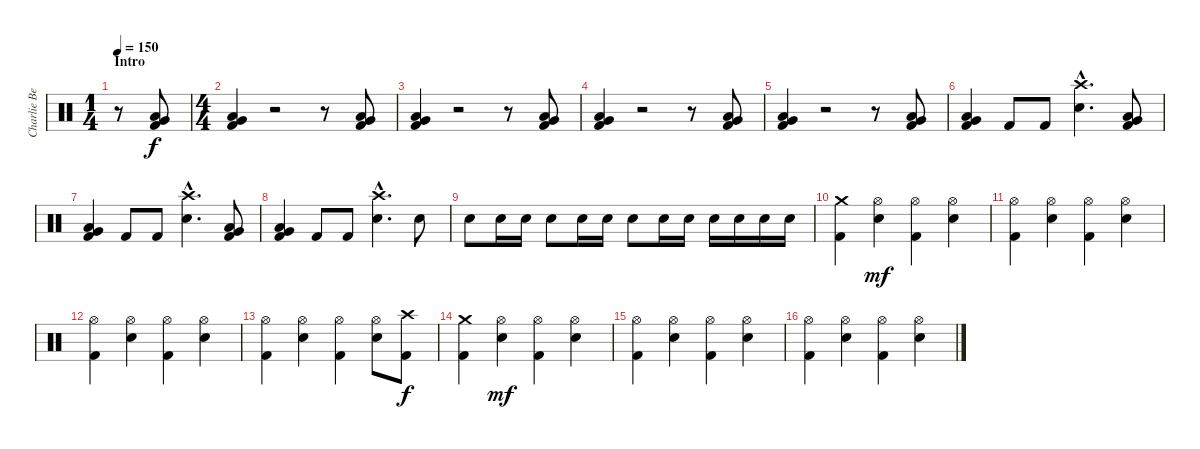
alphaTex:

\track ("Charlie Benante" "Charlie Be") {instrument percussion}
\staff {score}
\articulation defaults
\ts (1 4)
\section ("" "Intro")
\tempo 150
\clef neutral
\ks c
r.8{dy f} ("Kick (hit) 2" "Low Tom (hit)" "Very Low Tom (hit)").8 |
\ts (4 4)
("Kick (hit) 2" "Low Tom (hit)" "Very Low Tom (hit)").4 r.2 r.8 ("Kick (hit) 2" "Low Tom (hit)" "Very Low Tom (hit)").8 |
("Kick (hit) 2" "Low Tom (hit)" "Very Low Tom (hit)").4 r.2 r.8 ("Kick (hit) 2" "Low Tom (hit)" "Very Low Tom (hit)").8 |
("Kick (hit) 2" "Low Tom (hit)" "Very Low Tom (hit)").4 r.2 r.8 ("Kick (hit) 2" "Low Tom (hit)" "Very Low Tom (hit)").8 |
("Kick (hit) 2" "Low Tom (hit)" "Very Low Tom (hit)").4 r.2 r.8 ("Kick (hit) 2" "Low Tom (hit)" "Very Low Tom (hit)").8 |
("Kick (hit) 2" "Low Tom (hit)" "Very Low Tom (hit)").4 "Kick (hit) 2".8 "Kick (hit) 2".8 ("Crash high (hit)"{hac} "Snare (hit) 2"{hac}).4{d} ("Kick (hit) 2" "Low Tom (hit)" "Very Low Tom (hit)").8 |
("Kick (hit) 2" "Low Tom (hit)" "Very Low Tom (hit)").4 "Kick (hit) 2".8 "Kick (hit) 2".8 ("Crash high (hit)"{hac} "Snare (hit) 2"{hac}).4{d} ("Kick (hit) 2" "Low Tom (hit)" "Very Low Tom (hit)").8 |
("Kick (hit) 2" "Low Tom (hit)" "Very Low Tom (hit)").4 "Kick (hit) 2".8 "Kick (hit) 2".8 ("Crash high (hit)"{hac} "Snare (hit) 2"{hac}).4{d} "Snare (hit) 2".8 |
"Snare (hit) 2".8 "Snare (hit) 2".16 "Snare (hit) 2".16 "Snare (hit) 2".8 "Snare (hit) 2".16 "Snare (hit) 2".16 "Snare (hit) 2".8 "Snare (hit) 2".16 "Snare (hit) 2".16 "Snare (hit) 2".16 "Snare (hit) 2".16 "Snare (hit) 2".16 "Snare (hit) 2".16 |
("Kick (hit) 2" "Crash medium (hit)").4 ("Hi-Hat (open)" "Snare (hit) 2").4{dy mf} ("Kick (hit) 2" "Hi-Hat (open)").4 ("Hi-Hat (open)" "Snare (hit) 2").4 |
("Kick (hit) 2" "Hi-Hat (open)").4 ("Hi-Hat (open)" "Snare (hit) 2").4 ("Kick (hit) 2" "Hi-Hat (open)").4 ("Hi-Hat (open)" "Snare (hit) 2").4 |
("Kick (hit) 2" "Hi-Hat (open)").4 ("Hi-Hat (open)" "Snare (hit) 2").4 ("Kick (hit) 2" "Hi-Hat (open)").4 ("Hi-Hat (open)" "Snare (hit) 2").4 |
("Kick (hit) 2" "Hi-Hat (open)").4 ("Hi-Hat (open)" "Snare (hit) 2").4 ("Kick (hit) 2" "Hi-Hat (open)").4 ("Hi-Hat (open)" "Snare (hit) 2").8 ("Kick (hit) 2" "Crash high (hit)").8{dy f} |
("Kick (hit) 2" "Crash medium (hit)").4 ("Hi-Hat (open)" "Snare (hit) 2").4{dy mf} ("Kick (hit) 2" "Hi-Hat (open)").4 ("Hi-Hat (open)" "Snare (hit) 2").4 |
("Kick (hit) 2" "Hi-Hat (open)").4 ("Hi-Hat (open)" "Snare (hit) 2").4 ("Kick (hit) 2" "Hi-Hat (open)").4 ("Hi-Hat (open)" "Snare (hit) 2").4 |
("Kick (hit) 2" "Hi-Hat (open)").4 ("Hi-Hat (open)" "Snare (hit) 2").4 ("Kick (hit) 2" "Hi-Hat (open)").4 ("Hi-Hat (open)" "Snare (hit) 2").4
